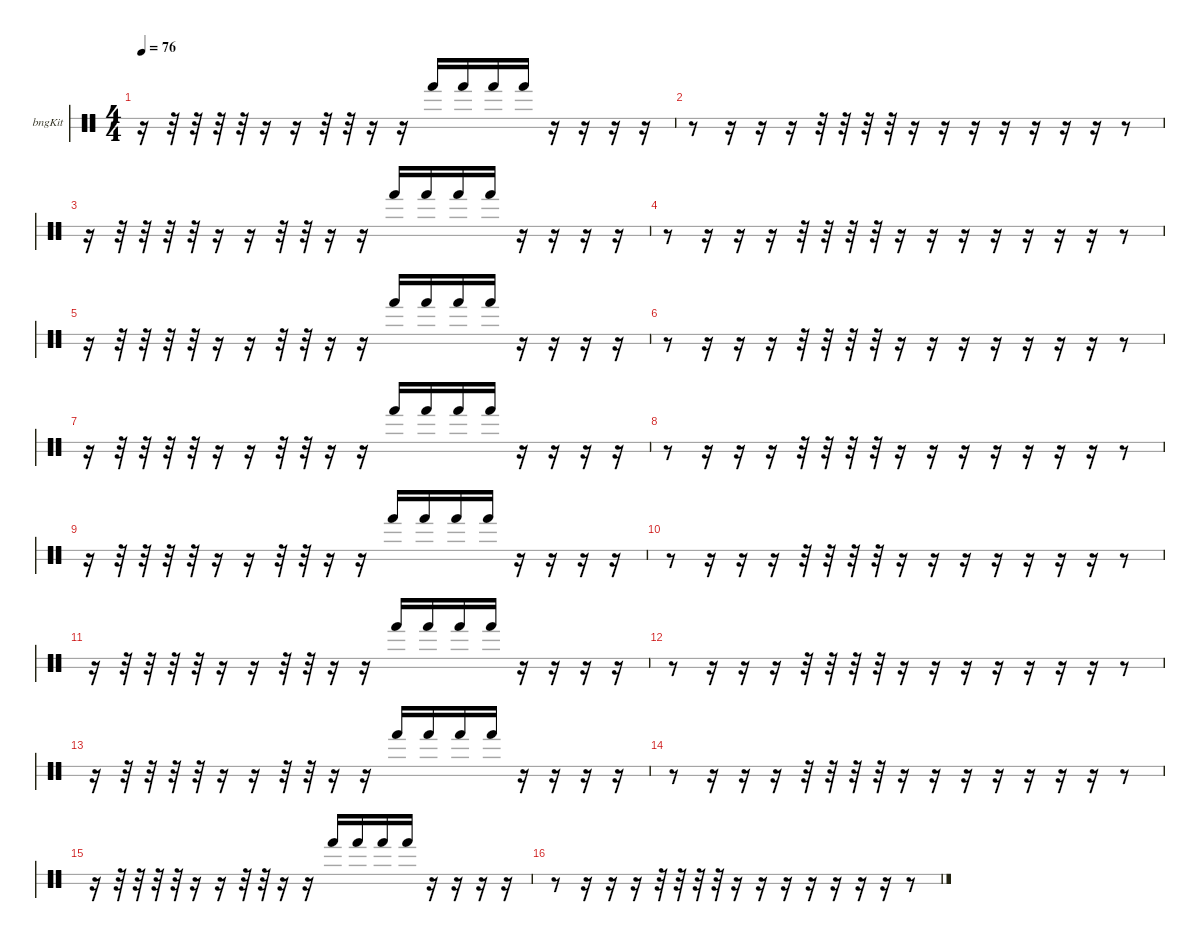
\hideDynamics
\bracketExtendMode nobrackets
\firstSystemTrackNameOrientation horizontal
\otherSystemsTrackNameOrientation horizontal
\track ("Bongos" "bngKit") {instrument percussion}
\staff {score 2}
\articulation defaults
\ts (4 4)
\tempo 76
\clef neutral
\ks c
r.16{dy f beam Down} r.32{beam Down} r.32{beam Down} r.32{beam Down} r.32{beam Down} r.16{beam Down} r.16{beam Down} r.32{beam Down} r.32{beam Down} r.16{beam Down} r.16{beam Down} "Hand (hit)".16{beam Up} "Hand (hit)".16{beam Up} "Hand (hit)".16{beam Up} "Hand (hit)".16{beam Up} r.16{beam Up} r.16{beam Up} r.16{beam Up} r.16{beam Up} |
r.8{beam Down} r.16{beam Down} r.16{beam Down} r.16{beam Down} r.32{beam Down} r.32{beam Down} r.32{beam Down} r.32{beam Down} r.16{beam Down} r.16{beam Down} r.16{beam Down} r.16{beam Down} r.16{beam Down} r.16{beam Down} r.16{beam Down} r.8{beam Down} |
r.16{beam Down} r.32{beam Down} r.32{beam Down} r.32{beam Down} r.32{beam Down} r.16{beam Down} r.16{beam Down} r.32{beam Down} r.32{beam Down} r.16{beam Down} r.16{beam Down} "Hand (hit)".16{beam Up} "Hand (hit)".16{beam Up} "Hand (hit)".16{beam Up} "Hand (hit)".16{beam Up} r.16{beam Up} r.16{beam Up} r.16{beam Up} r.16{beam Up} |
r.8{beam Down} r.16{beam Down} r.16{beam Down} r.16{beam Down} r.32{beam Down} r.32{beam Down} r.32{beam Down} r.32{beam Down} r.16{beam Down} r.16{beam Down} r.16{beam Down} r.16{beam Down} r.16{beam Down} r.16{beam Down} r.16{beam Down} r.8{beam Down} |
r.16{beam Down} r.32{beam Down} r.32{beam Down} r.32{beam Down} r.32{beam Down} r.16{beam Down} r.16{beam Down} r.32{beam Down} r.32{beam Down} r.16{beam Down} r.16{beam Down} "Hand (hit)".16{beam Up} "Hand (hit)".16{beam Up} "Hand (hit)".16{beam Up} "Hand (hit)".16{beam Up} r.16{beam Up} r.16{beam Up} r.16{beam Up} r.16{beam Up} |
r.8{beam Down} r.16{beam Down} r.16{beam Down} r.16{beam Down} r.32{beam Down} r.32{beam Down} r.32{beam Down} r.32{beam Down} r.16{beam Down} r.16{beam Down} r.16{beam Down} r.16{beam Down} r.16{beam Down} r.16{beam Down} r.16{beam Down} r.8{beam Down} |
r.16{beam Down} r.32{beam Down} r.32{beam Down} r.32{beam Down} r.32{beam Down} r.16{beam Down} r.16{beam Down} r.32{beam Down} r.32{beam Down} r.16{beam Down} r.16{beam Down} "Hand (hit)".16{beam Up} "Hand (hit)".16{beam Up} "Hand (hit)".16{beam Up} "Hand (hit)".16{beam Up} r.16{beam Up} r.16{beam Up} r.16{beam Up} r.16{beam Up} |
r.8{beam Down} r.16{beam Down} r.16{beam Down} r.16{beam Down} r.32{beam Down} r.32{beam Down} r.32{beam Down} r.32{beam Down} r.16{beam Down} r.16{beam Down} r.16{beam Down} r.16{beam Down} r.16{beam Down} r.16{beam Down} r.16{beam Down} r.8{beam Down} |
r.16{beam Down} r.32{beam Down} r.32{beam Down} r.32{beam Down} r.32{beam Down} r.16{beam Down} r.16{beam Down} r.32{beam Down} r.32{beam Down} r.16{beam Down} r.16{beam Down} "Hand (hit)".16{beam Up} "Hand (hit)".16{beam Up} "Hand (hit)".16{beam Up} "Hand (hit)".16{beam Up} r.16{beam Up} r.16{beam Up} r.16{beam Up} r.16{beam Up} |
r.8{beam Down} r.16{beam Down} r.16{beam Down} r.16{beam Down} r.32{beam Down} r.32{beam Down} r.32{beam Down} r.32{beam Down} r.16{beam Down} r.16{beam Down} r.16{beam Down} r.16{beam Down} r.16{beam Down} r.16{beam Down} r.16{beam Down} r.8{beam Down} |
r.16{beam Down} r.32{beam Down} r.32{beam Down} r.32{beam Down} r.32{beam Down} r.16{beam Down} r.16{beam Down} r.32{beam Down} r.32{beam Down} r.16{beam Down} r.16{beam Down} "Hand (hit)".16{beam Up} "Hand (hit)".16{beam Up} "Hand (hit)".16{beam Up} "Hand (hit)".16{beam Up} r.16{beam Up} r.16{beam Up} r.16{beam Up} r.16{beam Up} |
r.8{beam Down} r.16{beam Down} r.16{beam Down} r.16{beam Down} r.32{beam Down} r.32{beam Down} r.32{beam Down} r.32{beam Down} r.16{beam Down} r.16{beam Down} r.16{beam Down} r.16{beam Down} r.16{beam Down} r.16{beam Down} r.16{beam Down} r.8{beam Down} |
r.16{beam Down} r.32{beam Down} r.32{beam Down} r.32{beam Down} r.32{beam Down} r.16{beam Down} r.16{beam Down} r.32{beam Down} r.32{beam Down} r.16{beam Down} r.16{beam Down} "Hand (hit)".16{beam Up} "Hand (hit)".16{beam Up} "Hand (hit)".16{beam Up} "Hand (hit)".16{beam Up} r.16{beam Up} r.16{beam Up} r.16{beam Up} r.16{beam Up} |
r.8{beam Down} r.16{beam Down} r.16{beam Down} r.16{beam Down} r.32{beam Down} r.32{beam Down} r.32{beam Down} r.32{beam Down} r.16{beam Down} r.16{beam Down} r.16{beam Down} r.16{beam Down} r.16{beam Down} r.16{beam Down} r.16{beam Down} r.8{beam Down} |
r.16{beam Down} r.32{beam Down} r.32{beam Down} r.32{beam Down} r.32{beam Down} r.16{beam Down} r.16{beam Down} r.32{beam Down} r.32{beam Down} r.16{beam Down} r.16{beam Down} "Hand (hit)".16{beam Up} "Hand (hit)".16{beam Up} "Hand (hit)".16{beam Up} "Hand (hit)".16{beam Up} r.16{beam Up} r.16{beam Up} r.16{beam Up} r.16{beam Up} |
r.8{beam Down} r.16{beam Down} r.16{beam Down} r.16{beam Down} r.32{beam Down} r.32{beam Down} r.32{beam Down} r.32{beam Down} r.16{beam Down} r.16{beam Down} r.16{beam Down} r.16{beam Down} r.16{beam Down} r.16{beam Down} r.16{beam Down} r.8{beam Down}
